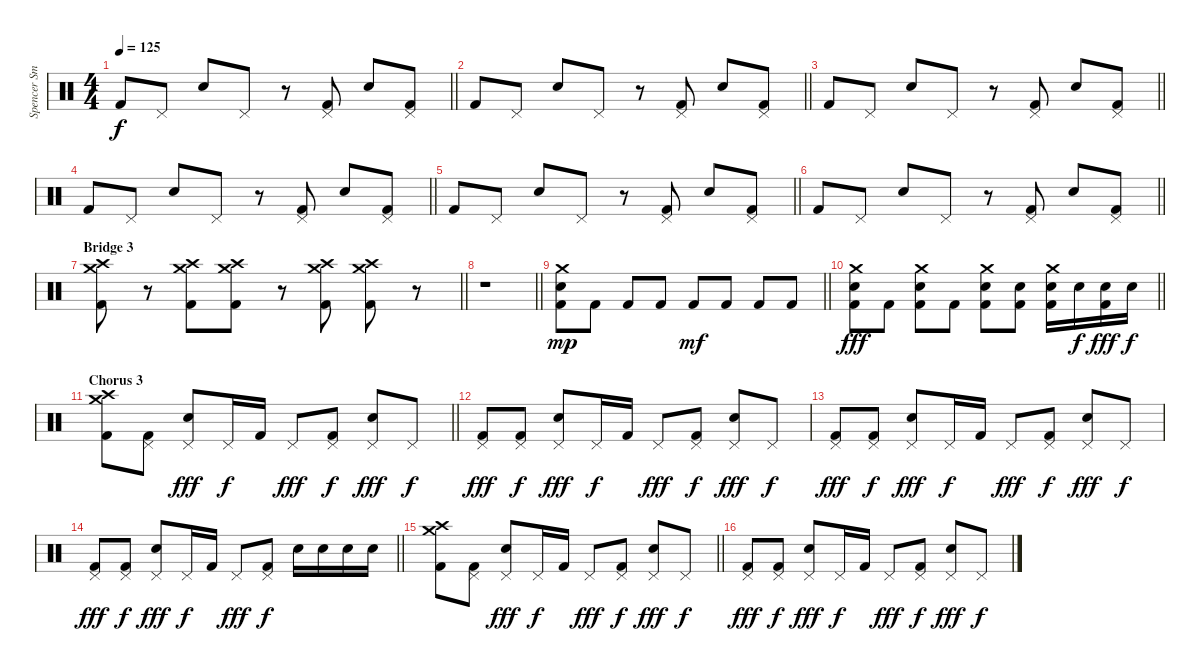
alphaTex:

\track ("Spencer Smith (Drums)" "Spencer Sm") {instrument percussion}
\staff {score}
\articulation defaults
\ts (4 4)
\tempo 125
\clef neutral
\barLineRight lightlight
\ks c "Kick (hit) 2".8{dy f} "Pedal Hi-Hat (hit)".8 "Electric Snare (hit)".8 "Pedal Hi-Hat (hit)".8
r.8 ("Pedal Hi-Hat (hit)" "Kick (hit) 2").8 "Electric Snare (hit)".8 ("Pedal Hi-Hat (hit)" "Kick (hit) 2").8 |
\barLineRight lightlight "Kick (hit) 2".8 "Pedal Hi-Hat (hit)".8 "Electric Snare (hit)".8 "Pedal Hi-Hat (hit)".8
r.8 ("Pedal Hi-Hat (hit)" "Kick (hit) 2").8 "Electric Snare (hit)".8 ("Pedal Hi-Hat (hit)" "Kick (hit) 2").8 |
\barLineRight lightlight "Kick (hit) 2".8 "Pedal Hi-Hat (hit)".8 "Electric Snare (hit)".8 "Pedal Hi-Hat (hit)".8
r.8 ("Pedal Hi-Hat (hit)" "Kick (hit) 2").8 "Electric Snare (hit)".8 ("Pedal Hi-Hat (hit)" "Kick (hit) 2").8 |
\barLineRight lightlight "Kick (hit) 2".8 "Pedal Hi-Hat (hit)".8 "Electric Snare (hit)".8 "Pedal Hi-Hat (hit)".8
r.8 ("Pedal Hi-Hat (hit)" "Kick (hit) 2").8 "Electric Snare (hit)".8 ("Pedal Hi-Hat (hit)" "Kick (hit) 2").8 |
\barLineRight lightlight "Kick (hit) 2".8 "Pedal Hi-Hat (hit)".8 "Electric Snare (hit)".8 "Pedal Hi-Hat (hit)".8
r.8 ("Pedal Hi-Hat (hit)" "Kick (hit) 2").8 "Electric Snare (hit)".8 ("Pedal Hi-Hat (hit)" "Kick (hit) 2").8 |
\barLineRight lightlight "Kick (hit) 2".8 "Pedal Hi-Hat (hit)".8 "Electric Snare (hit)".8 "Pedal Hi-Hat (hit)".8
r.8 ("Pedal Hi-Hat (hit)" "Kick (hit) 2").8 "Electric Snare (hit)".8 ("Pedal Hi-Hat (hit)" "Kick (hit) 2").8 |
\section ("" "Bridge 3")
\barLineRight lightlight
("Crash medium (hit)" "Crash high (hit)" "Kick (hit) 2").8 r.8 ("Crash medium (hit)" "Crash high (hit)" "Kick (hit) 2").8 ("Crash medium (hit)" "Crash high (hit)" "Kick (hit) 2").8 r.8 ("Crash medium (hit)" "Crash high (hit)" "Kick (hit) 2").8 ("Crash medium (hit)" "Crash high (hit)" "Kick (hit) 2").8 r.8 |
\barLineRight lightlight
r.1 |
\barLineRight lightlight
("Crash medium (hit)" "Electric Snare (hit)" "Kick (hit) 2").8{dy mp} "Kick (hit) 2".8 "Kick (hit) 2".8 "Kick (hit) 2".8 "Kick (hit) 2".8{dy mf} "Kick (hit) 2".8 "Kick (hit) 2".8 "Kick (hit) 2".8 |
\barLineRight lightlight
("Crash medium (hit)" "Electric Snare (hit)" "Kick (hit) 2").8{dy fff} "Kick (hit) 2".8 ("Crash medium (hit)" "Electric Snare (hit)" "Kick (hit) 2").8 "Kick (hit) 2".8 ("Crash medium (hit)" "Electric Snare (hit)" "Kick (hit) 2").8 ("Electric Snare (hit)" "Kick (hit) 2").8 ("Crash medium (hit)" "Electric Snare (hit)" "Kick (hit) 2").16 "Electric Snare (hit)".16{dy f} ("Electric Snare (hit)" "Kick (hit) 2").16{dy fff} "Electric Snare (hit)".16{dy f} |
\section ("" "Chorus 3")
\barLineRight lightlight
("Crash high (hit)" "Crash medium (hit)" "Kick (hit) 2").8 ("Pedal Hi-Hat (hit)" "Kick (hit) 2").8 ("Pedal Hi-Hat (hit)" "Electric Snare (hit)").8{dy fff} "Pedal Hi-Hat (hit)".16{dy f} "Kick (hit) 2".16 "Pedal Hi-Hat (hit)".8{dy fff} ("Pedal Hi-Hat (hit)" "Kick (hit) 2").8{dy f} ("Pedal Hi-Hat (hit)" "Electric Snare (hit)").8{dy fff} "Pedal Hi-Hat (hit)".8{dy f} |
("Pedal Hi-Hat (hit)" "Kick (hit) 2").8{dy fff} ("Pedal Hi-Hat (hit)" "Kick (hit) 2").8{dy f} ("Pedal Hi-Hat (hit)" "Electric Snare (hit)").8{dy fff} "Pedal Hi-Hat (hit)".16{dy f} "Kick (hit) 2".16 "Pedal Hi-Hat (hit)".8{dy fff} ("Pedal Hi-Hat (hit)" "Kick (hit) 2").8{dy f} ("Pedal Hi-Hat (hit)" "Electric Snare (hit)").8{dy fff} "Pedal Hi-Hat (hit)".8{dy f} |
("Pedal Hi-Hat (hit)" "Kick (hit) 2").8{dy fff} ("Pedal Hi-Hat (hit)" "Kick (hit) 2").8{dy f} ("Pedal Hi-Hat (hit)" "Electric Snare (hit)").8{dy fff} "Pedal Hi-Hat (hit)".16{dy f} "Kick (hit) 2".16 "Pedal Hi-Hat (hit)".8{dy fff} ("Pedal Hi-Hat (hit)" "Kick (hit) 2").8{dy f} ("Pedal Hi-Hat (hit)" "Electric Snare (hit)").8{dy fff} "Pedal Hi-Hat (hit)".8{dy f} |
\barLineRight lightlight
("Pedal Hi-Hat (hit)" "Kick (hit) 2").8{dy fff} ("Pedal Hi-Hat (hit)" "Kick (hit) 2").8{dy f} ("Pedal Hi-Hat (hit)" "Electric Snare (hit)").8{dy fff} "Pedal Hi-Hat (hit)".16{dy f} "Kick (hit) 2".16 "Pedal Hi-Hat (hit)".8{dy fff} ("Pedal Hi-Hat (hit)" "Kick (hit) 2").8{dy f} "Electric Snare (hit)".16 "Electric Snare (hit)".16 "Electric Snare (hit)".16 "Electric Snare (hit)".16 |
\barLineRight lightlight
("Crash high (hit)" "Crash medium (hit)" "Kick (hit) 2").8 ("Pedal Hi-Hat (hit)" "Kick (hit) 2").8 ("Pedal Hi-Hat (hit)" "Electric Snare (hit)").8{dy fff} "Pedal Hi-Hat (hit)".16{dy f} "Kick (hit) 2".16 "Pedal Hi-Hat (hit)".8{dy fff} ("Pedal Hi-Hat (hit)" "Kick (hit) 2").8{dy f} ("Pedal Hi-Hat (hit)" "Electric Snare (hit)").8{dy fff} "Pedal Hi-Hat (hit)".8{dy f} |
("Pedal Hi-Hat (hit)" "Kick (hit) 2").8{dy fff} ("Pedal Hi-Hat (hit)" "Kick (hit) 2").8{dy f} ("Pedal Hi-Hat (hit)" "Electric Snare (hit)").8{dy fff} "Pedal Hi-Hat (hit)".16{dy f} "Kick (hit) 2".16 "Pedal Hi-Hat (hit)".8{dy fff} ("Pedal Hi-Hat (hit)" "Kick (hit) 2").8{dy f} ("Pedal Hi-Hat (hit)" "Electric Snare (hit)").8{dy fff} "Pedal Hi-Hat (hit)".8{dy f}
